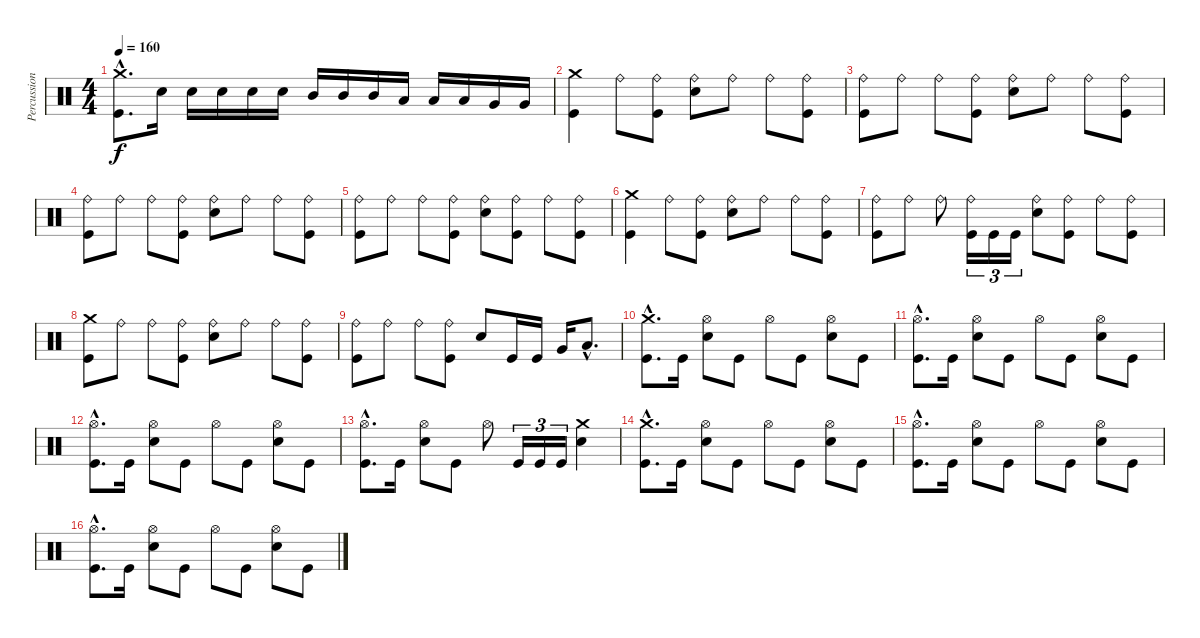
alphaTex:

\track ("Percussions" "Percussion") {instrument percussion}
\staff {score}
\articulation defaults
\ts (4 4)
\tempo 160
\clef neutral
\ks c
("Kick (hit)"{hac} "Crash medium (hit)"{hac}).8{d dy f} "Electric Snare (hit)".16 "Electric Snare (hit)".16 "Electric Snare (hit)".16 "Electric Snare (hit)".16 "Electric Snare (hit)".16 "Mid Tom (hit)".16 "Mid Tom (hit)".16 "Mid Tom (hit)".16 "Low Tom (hit)".16 "Low Tom (hit)".16 "Low Tom (hit)".16 "Very Low Tom (hit)".16 "Very Low Tom (hit)".16 |
("Kick (hit)" "Crash medium (hit)").4 "Ride (bell)".8 ("Kick (hit)" "Ride (bell)").8 ("Electric Snare (hit)" "Ride (bell)").8 "Ride (bell)".8 "Ride (bell)".8 ("Kick (hit)" "Ride (bell)").8 |
("Kick (hit)" "Ride (bell)").8 "Ride (bell)".8 "Ride (bell)".8 ("Kick (hit)" "Ride (bell)").8 ("Electric Snare (hit)" "Ride (bell)").8 "Ride (bell)".8 "Ride (bell)".8 ("Kick (hit)" "Ride (bell)").8 |
("Kick (hit)" "Ride (bell)").8 "Ride (bell)".8 "Ride (bell)".8 ("Kick (hit)" "Ride (bell)").8 ("Electric Snare (hit)" "Ride (bell)").8 "Ride (bell)".8 "Ride (bell)".8 ("Kick (hit)" "Ride (bell)").8 |
("Kick (hit)" "Ride (bell)").8 "Ride (bell)".8 "Ride (bell)".8 ("Kick (hit)" "Ride (bell)").8 ("Electric Snare (hit)" "Ride (bell)").8 ("Kick (hit)" "Ride (bell)").8 "Ride (bell)".8 ("Kick (hit)" "Ride (bell)").8 |
("Kick (hit)" "Crash medium (hit)").4 "Ride (bell)".8 ("Kick (hit)" "Ride (bell)").8 ("Electric Snare (hit)" "Ride (bell)").8 "Ride (bell)".8 "Ride (bell)".8 ("Kick (hit)" "Ride (bell)").8 |
("Kick (hit)" "Ride (bell)").8 "Ride (bell)".8 "Ride (bell)".8 ("Kick (hit)" "Ride (bell)").16{tu (3 2)} "Kick (hit)".16{tu (3 2)} "Kick (hit)".16{tu (3 2)} ("Electric Snare (hit)" "Ride (bell)").8 ("Kick (hit)" "Ride (bell)").8 "Ride (bell)".8 ("Kick (hit)" "Ride (bell)").8 |
("Kick (hit)" "Crash medium (hit)").8 "Ride (bell)".8 "Ride (bell)".8 ("Kick (hit)" "Ride (bell)").8 ("Electric Snare (hit)" "Ride (bell)").8 "Ride (bell)".8 "Ride (bell)".8 ("Kick (hit)" "Ride (bell)").8 |
("Kick (hit)" "Ride (bell)").8 "Ride (bell)".8 "Ride (bell)".8 ("Kick (hit)" "Ride (bell)").8 "Electric Snare (hit)".8 "Kick (hit)".16 "Kick (hit)".16 "Very Low Tom (hit)".16 "Low Floor Tom (hit)"{hac}.8{d} |
("Kick (hit)"{hac} "Crash medium (hit)"{hac}).8{d} "Kick (hit)".16 ("Electric Snare (hit)" "Hi-Hat (open)").8 "Kick (hit)".8 "Hi-Hat (open)".8 "Kick (hit)".8 ("Electric Snare (hit)" "Hi-Hat (open)").8 "Kick (hit)".8 |
("Kick (hit)"{hac} "Hi-Hat (open)"{hac}).8{d} "Kick (hit)".16 ("Electric Snare (hit)" "Hi-Hat (open)").8 "Kick (hit)".8 "Hi-Hat (open)".8 "Kick (hit)".8 ("Electric Snare (hit)" "Hi-Hat (open)").8 "Kick (hit)".8 |
("Kick (hit)"{hac} "Hi-Hat (open)"{hac}).8{d} "Kick (hit)".16 ("Electric Snare (hit)" "Hi-Hat (open)").8 "Kick (hit)".8 "Hi-Hat (open)".8 "Kick (hit)".8 ("Electric Snare (hit)" "Hi-Hat (open)").8 "Kick (hit)".8 |
("Kick (hit)"{hac} "Hi-Hat (open)"{hac}).8{d} "Kick (hit)".16 ("Electric Snare (hit)" "Hi-Hat (open)").8 "Kick (hit)".8 "Hi-Hat (open)".8 "Kick (hit)".16{tu (3 2)} "Kick (hit)".16{tu (3 2)} "Kick (hit)".16{tu (3 2)} ("Electric Snare (hit)" "Crash medium (hit)").4 |
("Kick (hit)"{hac} "Crash medium (hit)"{hac}).8{d} "Kick (hit)".16 ("Electric Snare (hit)" "Hi-Hat (open)").8 "Kick (hit)".8 "Hi-Hat (open)".8 "Kick (hit)".8 ("Electric Snare (hit)" "Hi-Hat (open)").8 "Kick (hit)".8 |
("Kick (hit)"{hac} "Hi-Hat (open)"{hac}).8{d} "Kick (hit)".16 ("Electric Snare (hit)" "Hi-Hat (open)").8 "Kick (hit)".8 "Hi-Hat (open)".8 "Kick (hit)".8 ("Electric Snare (hit)" "Hi-Hat (open)").8 "Kick (hit)".8 |
("Kick (hit)"{hac} "Hi-Hat (open)"{hac}).8{d} "Kick (hit)".16 ("Electric Snare (hit)" "Hi-Hat (open)").8 "Kick (hit)".8 "Hi-Hat (open)".8 "Kick (hit)".8 ("Electric Snare (hit)" "Hi-Hat (open)").8 "Kick (hit)".8
